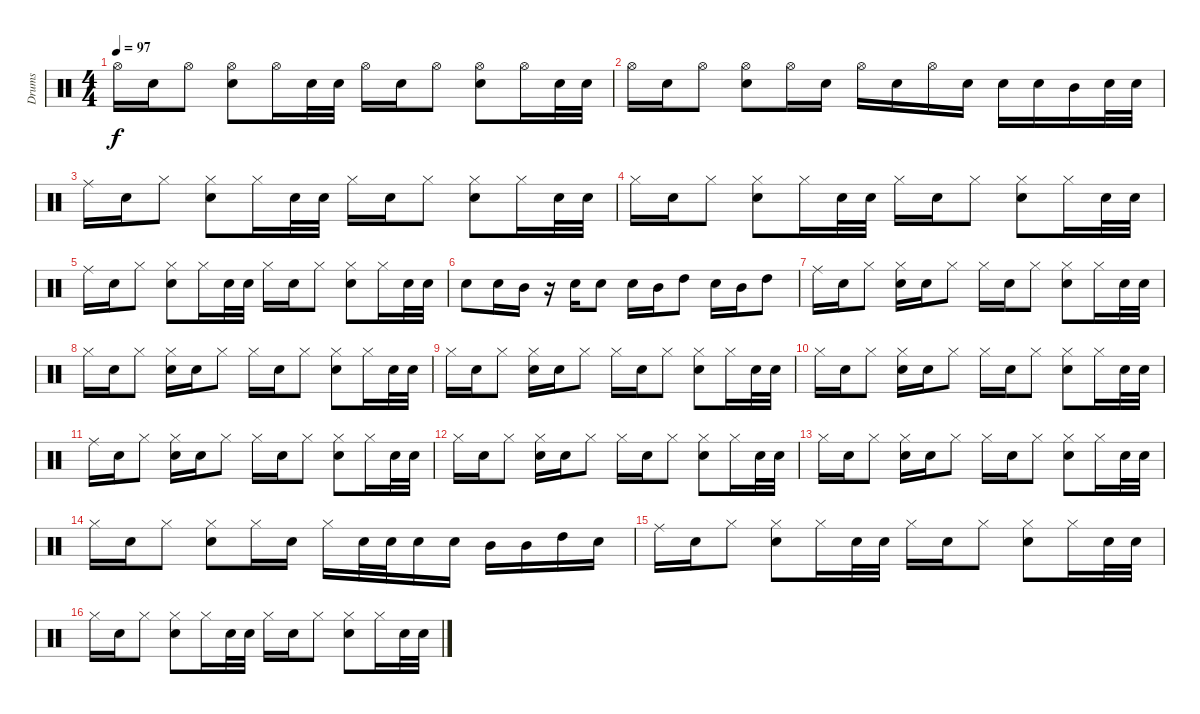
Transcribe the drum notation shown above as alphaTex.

\track ("Drums" "Drums") {instrument percussion}
\staff {score}
\articulation defaults
\ts (4 4)
\tempo 97
\clef neutral
\ks c "Hi-Hat (open)".16{dy f} "Snare (hit) 2".16 "Hi-Hat (open)".8
("Hi-Hat (open)" "Snare (hit) 2").8 "Hi-Hat (open)".16 "Snare (hit) 2".32 "Snare (hit) 2".32 "Hi-Hat (open)".16 "Snare (hit) 2".16 "Hi-Hat (open)".8 ("Hi-Hat (open)" "Snare (hit) 2").8 "Hi-Hat (open)".16 "Snare (hit) 2".32 "Snare (hit) 2".32 |
"Hi-Hat (open)".16 "Snare (hit) 2".16 "Hi-Hat (open)".8 ("Hi-Hat (open)" "Snare (hit) 2").8 "Hi-Hat (open)".16 "Snare (hit) 2".16 "Hi-Hat (open)".16 "Snare (hit) 2".16 "Hi-Hat (open)".16 "Snare (hit) 2".16 "Snare (hit) 2".16 "Snare (hit) 2".16 "Mid Tom (hit)".16 "Snare (hit) 2".32 "Snare (hit) 2".32 |
"Ride (middle)".16 "Snare (hit) 2".16 "Hi-Hat (closed)".8 ("Hi-Hat (closed)" "Snare (hit) 2").8 "Hi-Hat (closed)".16 "Snare (hit) 2".32 "Snare (hit) 2".32 "Hi-Hat (closed)".16 "Snare (hit) 2".16 "Hi-Hat (closed)".8 ("Hi-Hat (closed)" "Snare (hit) 2").8 "Hi-Hat (closed)".16 "Snare (hit) 2".32 "Snare (hit) 2".32 |
"Hi-Hat (closed)".16 "Snare (hit) 2".16 "Hi-Hat (closed)".8 ("Hi-Hat (closed)" "Snare (hit) 2").8 "Hi-Hat (closed)".16 "Snare (hit) 2".32 "Snare (hit) 2".32 "Hi-Hat (closed)".16 "Snare (hit) 2".16 "Hi-Hat (closed)".8 ("Hi-Hat (closed)" "Snare (hit) 2").8 "Hi-Hat (closed)".16 "Snare (hit) 2".32 "Snare (hit) 2".32 |
"Ride (middle)".16 "Snare (hit) 2".16 "Hi-Hat (closed)".8 ("Hi-Hat (closed)" "Snare (hit) 2").8 "Hi-Hat (closed)".16 "Snare (hit) 2".32 "Snare (hit) 2".32 "Hi-Hat (closed)".16 "Snare (hit) 2".16 "Hi-Hat (closed)".8 ("Hi-Hat (closed)" "Snare (hit) 2").8 "Hi-Hat (closed)".16 "Snare (hit) 2".32 "Snare (hit) 2".32 |
"Snare (hit) 2".8 "Snare (hit) 2".16 "Mid Tom (hit)".16 r.16 "Snare (hit) 2".16 "Snare (hit) 2".8 "Snare (hit) 2".16 "Mid Tom (hit)".16 "High Tom (hit)".8 "Snare (hit) 2".16 "Mid Tom (hit)".16 "High Tom (hit)".8 |
"Ride (middle)".16 "Snare (hit) 2".16 "Hi-Hat (closed)".8 ("Hi-Hat (closed)" "Snare (hit) 2").16 "Snare (hit) 2".16 "Hi-Hat (closed)".8 "Hi-Hat (closed)".16 "Snare (hit) 2".16 "Hi-Hat (closed)".8 ("Hi-Hat (closed)" "Snare (hit) 2").8 "Hi-Hat (closed)".16 "Snare (hit) 2".32 "Snare (hit) 2".32 |
"Hi-Hat (closed)".16 "Snare (hit) 2".16 "Hi-Hat (closed)".8 ("Hi-Hat (closed)" "Snare (hit) 2").16 "Snare (hit) 2".16 "Hi-Hat (closed)".8 "Hi-Hat (closed)".16 "Snare (hit) 2".16 "Hi-Hat (closed)".8 ("Hi-Hat (closed)" "Snare (hit) 2").8 "Hi-Hat (closed)".16 "Snare (hit) 2".32 "Snare (hit) 2".32 |
"Hi-Hat (closed)".16 "Snare (hit) 2".16 "Hi-Hat (closed)".8 ("Hi-Hat (closed)" "Snare (hit) 2").16 "Snare (hit) 2".16 "Hi-Hat (closed)".8 "Hi-Hat (closed)".16 "Snare (hit) 2".16 "Hi-Hat (closed)".8 ("Hi-Hat (closed)" "Snare (hit) 2").8 "Hi-Hat (closed)".16 "Snare (hit) 2".32 "Snare (hit) 2".32 |
"Hi-Hat (closed)".16 "Snare (hit) 2".16 "Hi-Hat (closed)".8 ("Hi-Hat (closed)" "Snare (hit) 2").16 "Snare (hit) 2".16 "Hi-Hat (closed)".8 "Hi-Hat (closed)".16 "Snare (hit) 2".16 "Hi-Hat (closed)".8 ("Hi-Hat (closed)" "Snare (hit) 2").8 "Hi-Hat (closed)".16 "Snare (hit) 2".32 "Snare (hit) 2".32 |
"Ride (middle)".16 "Snare (hit) 2".16 "Hi-Hat (closed)".8 ("Hi-Hat (closed)" "Snare (hit) 2").16 "Snare (hit) 2".16 "Hi-Hat (closed)".8 "Hi-Hat (closed)".16 "Snare (hit) 2".16 "Hi-Hat (closed)".8 ("Hi-Hat (closed)" "Snare (hit) 2").8 "Hi-Hat (closed)".16 "Snare (hit) 2".32 "Snare (hit) 2".32 |
"Hi-Hat (closed)".16 "Snare (hit) 2".16 "Hi-Hat (closed)".8 ("Hi-Hat (closed)" "Snare (hit) 2").16 "Snare (hit) 2".16 "Hi-Hat (closed)".8 "Hi-Hat (closed)".16 "Snare (hit) 2".16 "Hi-Hat (closed)".8 ("Hi-Hat (closed)" "Snare (hit) 2").8 "Hi-Hat (closed)".16 "Snare (hit) 2".32 "Snare (hit) 2".32 |
"Hi-Hat (closed)".16 "Snare (hit) 2".16 "Hi-Hat (closed)".8 ("Hi-Hat (closed)" "Snare (hit) 2").16 "Snare (hit) 2".16 "Hi-Hat (closed)".8 "Hi-Hat (closed)".16 "Snare (hit) 2".16 "Hi-Hat (closed)".8 ("Hi-Hat (closed)" "Snare (hit) 2").8 "Hi-Hat (closed)".16 "Snare (hit) 2".32 "Snare (hit) 2".32 |
"Hi-Hat (closed)".16 "Snare (hit) 2".16 "Hi-Hat (closed)".8 ("Hi-Hat (closed)" "Snare (hit) 2").8 "Hi-Hat (closed)".16 "Snare (hit) 2".16 "Hi-Hat (closed)".16 "Snare (hit) 2".32 "Snare (hit) 2".32 "Snare (hit) 2".16 "Snare (hit) 2".16 "Mid Tom (hit)".16 "Mid Tom (hit)".16 "High Tom (hit)".16 "Snare (hit) 2".16 |
"Ride (middle)".16 "Snare (hit) 2".16 "Hi-Hat (closed)".8 ("Hi-Hat (closed)" "Snare (hit) 2").8 "Hi-Hat (closed)".16 "Snare (hit) 2".32 "Snare (hit) 2".32 "Hi-Hat (closed)".16 "Snare (hit) 2".16 "Hi-Hat (closed)".8 ("Hi-Hat (closed)" "Snare (hit) 2").8 "Hi-Hat (closed)".16 "Snare (hit) 2".32 "Snare (hit) 2".32 |
"Hi-Hat (closed)".16 "Snare (hit) 2".16 "Hi-Hat (closed)".8 ("Hi-Hat (closed)" "Snare (hit) 2").8 "Hi-Hat (closed)".16 "Snare (hit) 2".32 "Snare (hit) 2".32 "Hi-Hat (closed)".16 "Snare (hit) 2".16 "Hi-Hat (closed)".8 ("Hi-Hat (closed)" "Snare (hit) 2").8 "Hi-Hat (closed)".16 "Snare (hit) 2".32 "Snare (hit) 2".32
